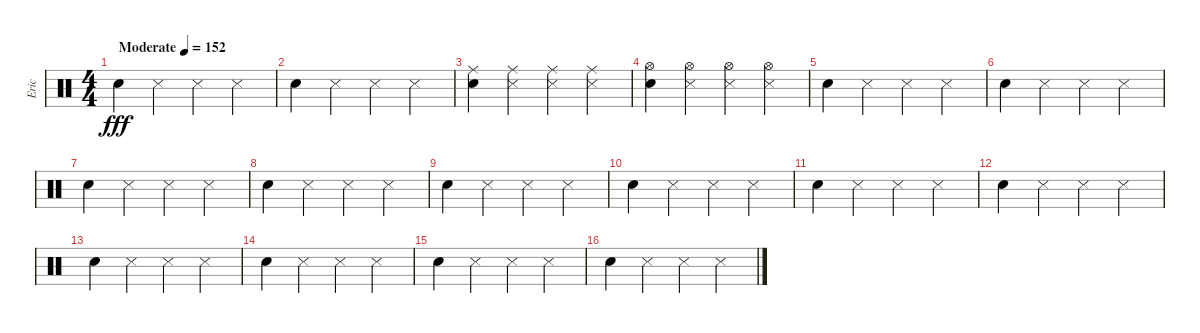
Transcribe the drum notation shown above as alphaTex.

\track ("Eric" "Eric") {instrument percussion}
\staff {score}
\articulation defaults
\ts (4 4)
\tempo (152 "Moderate")
\clef neutral
\ks c "Metronome (bell)".4{dy fff} "Metronome (hit)".4 "Metronome (hit)".4 "Metronome (hit)".4
|
"Metronome (bell)".4 "Metronome (hit)".4 "Metronome (hit)".4 "Metronome (hit)".4 |
("Ride (middle)" "Metronome (bell)").4 ("Ride (middle)" "Metronome (hit)").4 ("Ride (middle)" "Metronome (hit)").4 ("Ride (middle)" "Metronome (hit)").4 |
("Hi-Hat (open)" "Metronome (bell)").4 ("Hi-Hat (open)" "Metronome (hit)").4 ("Hi-Hat (open)" "Metronome (hit)").4 ("Hi-Hat (open)" "Metronome (hit)").4 |
"Metronome (bell)".4 "Metronome (hit)".4 "Metronome (hit)".4 "Metronome (hit)".4 |
"Metronome (bell)".4 "Metronome (hit)".4 "Metronome (hit)".4 "Metronome (hit)".4 |
"Metronome (bell)".4 "Metronome (hit)".4 "Metronome (hit)".4 "Metronome (hit)".4 |
"Metronome (bell)".4 "Metronome (hit)".4 "Metronome (hit)".4 "Metronome (hit)".4 |
"Metronome (bell)".4 "Metronome (hit)".4 "Metronome (hit)".4 "Metronome (hit)".4 |
"Metronome (bell)".4 "Metronome (hit)".4 "Metronome (hit)".4 "Metronome (hit)".4 |
"Metronome (bell)".4 "Metronome (hit)".4 "Metronome (hit)".4 "Metronome (hit)".4 |
"Metronome (bell)".4 "Metronome (hit)".4 "Metronome (hit)".4 "Metronome (hit)".4 |
"Metronome (bell)".4 "Metronome (hit)".4 "Metronome (hit)".4 "Metronome (hit)".4 |
"Metronome (bell)".4 "Metronome (hit)".4 "Metronome (hit)".4 "Metronome (hit)".4 |
"Metronome (bell)".4 "Metronome (hit)".4 "Metronome (hit)".4 "Metronome (hit)".4 |
"Metronome (bell)".4 "Metronome (hit)".4 "Metronome (hit)".4 "Metronome (hit)".4
